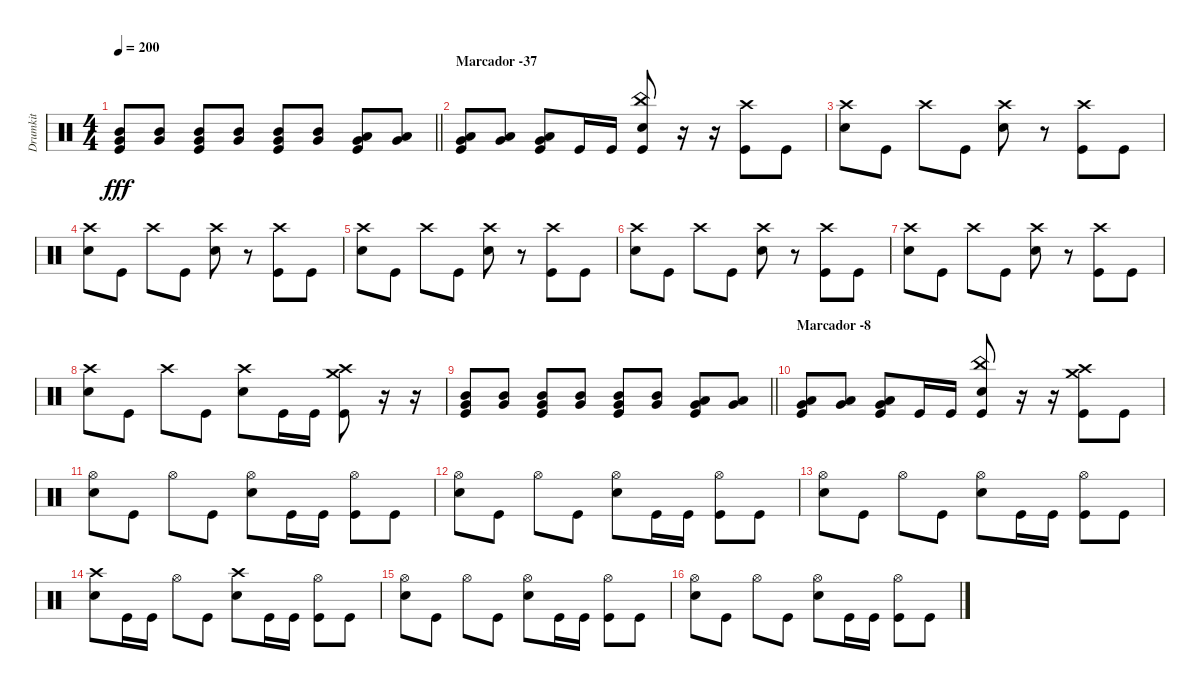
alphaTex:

\track ("Drumkit" "Drumkit") {instrument percussion}
\staff {score}
\articulation defaults
\ts (4 4)
\tempo 200
\clef neutral
\barLineRight lightlight
\ks c
("Mid Tom (hit)" "Very Low Tom (hit)" "Kick (hit)").8{dy fff} ("Mid Tom (hit)" "Very Low Tom (hit)").8 ("Mid Tom (hit)" "Very Low Tom (hit)" "Kick (hit)").8 ("Mid Tom (hit)" "Very Low Tom (hit)").8 ("Mid Tom (hit)" "Very Low Tom (hit)" "Kick (hit)").8 ("Mid Tom (hit)" "Very Low Tom (hit)").8 ("Low Tom (hit)" "Very Low Tom (hit)" "Kick (hit)").8 ("Low Tom (hit)" "Very Low Tom (hit)").8 |
\section ("" "Marcador -37")
("Low Tom (hit)" "Very Low Tom (hit)" "Kick (hit)").8 ("Low Tom (hit)" "Very Low Tom (hit)").8 ("Low Tom (hit)" "Very Low Tom (hit)" "Kick (hit)").8 "Kick (hit)".16 "Kick (hit)".16 ("China (hit)" "Snare (hit) 2" "Kick (hit)").8 r.16 r.16 ("Crash high (hit)" "Kick (hit)").8 "Kick (hit)".8 |
("Crash high (hit)" "Snare (hit) 2").8 "Kick (hit)".8 "Crash high (hit)".8 "Kick (hit)".8 ("Crash high (hit)" "Snare (hit) 2").8 r.8 ("Crash high (hit)" "Kick (hit)").8 "Kick (hit)".8 |
("Crash high (hit)" "Snare (hit) 2").8 "Kick (hit)".8 "Crash high (hit)".8 "Kick (hit)".8 ("Crash high (hit)" "Snare (hit) 2").8 r.8 ("Crash high (hit)" "Kick (hit)").8 "Kick (hit)".8 |
("Crash high (hit)" "Snare (hit) 2").8 "Kick (hit)".8 "Crash high (hit)".8 "Kick (hit)".8 ("Crash high (hit)" "Snare (hit) 2").8 r.8 ("Crash high (hit)" "Kick (hit)").8 "Kick (hit)".8 |
("Crash high (hit)" "Snare (hit) 2").8 "Kick (hit)".8 "Crash high (hit)".8 "Kick (hit)".8 ("Crash high (hit)" "Snare (hit) 2").8 r.8 ("Crash high (hit)" "Kick (hit)").8 "Kick (hit)".8 |
("Crash high (hit)" "Snare (hit) 2").8 "Kick (hit)".8 "Crash high (hit)".8 "Kick (hit)".8 ("Crash high (hit)" "Snare (hit) 2").8 r.8 ("Crash high (hit)" "Kick (hit)").8 "Kick (hit)".8 |
("Crash high (hit)" "Snare (hit) 2").8 "Kick (hit)".8 "Crash high (hit)".8 "Kick (hit)".8 ("Crash high (hit)" "Snare (hit) 2").8 "Kick (hit)".16 "Kick (hit)".16 ("Crash high (hit)" "Crash medium (hit)" "Kick (hit)").8 r.16 r.16 |
\barLineRight lightlight
("Mid Tom (hit)" "Very Low Tom (hit)" "Kick (hit)").8 ("Mid Tom (hit)" "Very Low Tom (hit)").8 ("Mid Tom (hit)" "Very Low Tom (hit)" "Kick (hit)").8 ("Mid Tom (hit)" "Very Low Tom (hit)").8 ("Mid Tom (hit)" "Very Low Tom (hit)" "Kick (hit)").8 ("Mid Tom (hit)" "Very Low Tom (hit)").8 ("Low Tom (hit)" "Very Low Tom (hit)" "Kick (hit)").8 ("Low Tom (hit)" "Very Low Tom (hit)").8 |
\section ("" "Marcador -8")
("Low Tom (hit)" "Very Low Tom (hit)" "Kick (hit)").8 ("Low Tom (hit)" "Very Low Tom (hit)").8 ("Low Tom (hit)" "Very Low Tom (hit)" "Kick (hit)").8 "Kick (hit)".16 "Kick (hit)".16 ("China (hit)" "Snare (hit) 2" "Kick (hit)").8 r.16 r.16 ("Crash high (hit)" "Crash medium (hit)" "Kick (hit)").8 "Kick (hit)".8 |
("Hi-Hat (open)" "Snare (hit) 2").8 "Kick (hit)".8 "Hi-Hat (open)".8 "Kick (hit)".8 ("Hi-Hat (open)" "Snare (hit) 2").8 "Kick (hit)".16 "Kick (hit)".16 ("Hi-Hat (open)" "Kick (hit)").8 "Kick (hit)".8 |
("Hi-Hat (open)" "Snare (hit) 2").8 "Kick (hit)".8 "Hi-Hat (open)".8 "Kick (hit)".8 ("Hi-Hat (open)" "Snare (hit) 2").8 "Kick (hit)".16 "Kick (hit)".16 ("Hi-Hat (open)" "Kick (hit)").8 "Kick (hit)".8 |
("Hi-Hat (open)" "Snare (hit) 2").8 "Kick (hit)".8 "Hi-Hat (open)".8 "Kick (hit)".8 ("Hi-Hat (open)" "Snare (hit) 2").8 "Kick (hit)".16 "Kick (hit)".16 ("Hi-Hat (open)" "Kick (hit)").8 "Kick (hit)".8 |
("Crash high (hit)" "Snare (hit) 2").8 "Kick (hit)".16 "Kick (hit)".16 "Hi-Hat (open)".8 "Kick (hit)".8 ("Crash high (hit)" "Snare (hit) 2").8 "Kick (hit)".16 "Kick (hit)".16 ("Hi-Hat (open)" "Kick (hit)").8 "Kick (hit)".8 |
("Hi-Hat (open)" "Snare (hit) 2").8 "Kick (hit)".8 "Hi-Hat (open)".8 "Kick (hit)".8 ("Hi-Hat (open)" "Snare (hit) 2").8 "Kick (hit)".16 "Kick (hit)".16 ("Hi-Hat (open)" "Kick (hit)").8 "Kick (hit)".8 |
("Hi-Hat (open)" "Snare (hit) 2").8 "Kick (hit)".8 "Hi-Hat (open)".8 "Kick (hit)".8 ("Hi-Hat (open)" "Snare (hit) 2").8 "Kick (hit)".16 "Kick (hit)".16 ("Hi-Hat (open)" "Kick (hit)").8 "Kick (hit)".8
